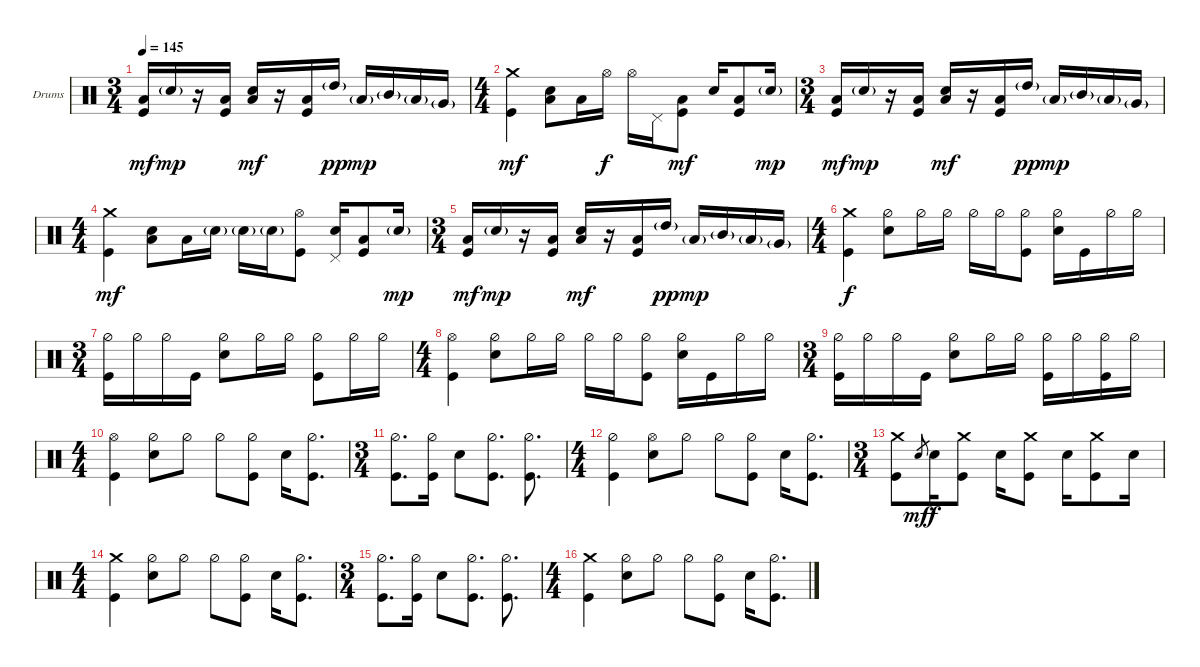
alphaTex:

\bracketExtendMode groupsimilarinstruments
\firstSystemTrackNameOrientation horizontal
\otherSystemsTrackNameOrientation horizontal
\track ("Drumkit" "Drums") {instrument percussion}
\staff {score}
\articulation defaults
\ts (3 4)
\beaming (8 2 2 2)
\tempo 145
\clef neutral
\ks c
("Low Tom (hit)" "Kick (hit)").16{dy mf} "Snare (hit) 2"{g}.16{dy mp} r.16 ("Low Tom (hit)" "Kick (hit)").16 ("Low Tom (hit)" "Snare (hit) 2").16{dy mf} r.16 ("Low Tom (hit)" "Kick (hit)").16 "High Tom (hit)"{g}.16{dy pp} "Low Tom (hit)"{g}.16{dy mp} "Mid Tom (hit)"{g}.16 "Low Tom (hit)"{g}.16 "Very Low Tom (hit)"{g}.16 |
\ts (4 4)
\beaming (8 2 2 2 2)
("Crash medium (hit)" "Kick (hit)").4{dy mf} ("Low Tom (hit)" "Snare (hit) 2").8 "Low Tom (hit)".16 "Hi-Hat (open)".16{dy f} "Hi-Hat (open)".16 "Pedal Hi-Hat (hit)".16 ("Low Tom (hit)" "Kick (hit)").8{dy mf} "Snare (hit) 2".16 ("Low Tom (hit)" "Kick (hit)").8 "Snare (hit) 2"{g}.16{dy mp} |
\ts (3 4)
\beaming (8 2 2 2)
("Low Tom (hit)" "Kick (hit)").16{dy mf} "Snare (hit) 2"{g}.16{dy mp} r.16 ("Low Tom (hit)" "Kick (hit)").16 ("Low Tom (hit)" "Snare (hit) 2").16{dy mf} r.16 ("Low Tom (hit)" "Kick (hit)").16 "High Tom (hit)"{g}.16{dy pp} "Low Tom (hit)"{g}.16{dy mp} "Mid Tom (hit)"{g}.16 "Low Tom (hit)"{g}.16 "Very Low Tom (hit)"{g}.16 |
\ts (4 4)
\beaming (8 2 2 2 2)
("Crash medium (hit)" "Kick (hit)").4{dy mf} ("Low Tom (hit)" "Snare (hit) 2").8 "Low Tom (hit)".16 "Snare (hit) 2"{g}.16 "Snare (hit) 2"{g}.16 "Snare (hit) 2"{g}.16 ("Hi-Hat (open)" "Kick (hit)").8 ("Snare (hit) 2" "Pedal Hi-Hat (hit)").16 ("Low Tom (hit)" "Kick (hit)").8 "Snare (hit) 2"{g}.16{dy mp} |
\ts (3 4)
\beaming (8 2 2 2)
("Low Tom (hit)" "Kick (hit)").16{dy mf} "Snare (hit) 2"{g}.16{dy mp} r.16 ("Low Tom (hit)" "Kick (hit)").16 ("Low Tom (hit)" "Snare (hit) 2").16{dy mf} r.16 ("Low Tom (hit)" "Kick (hit)").16 "High Tom (hit)"{g}.16{dy pp} "Low Tom (hit)"{g}.16{dy mp} "Mid Tom (hit)"{g}.16 "Low Tom (hit)"{g}.16 "Very Low Tom (hit)"{g}.16 |
\ts (4 4)
\beaming (8 2 2 2 2)
("Crash medium (hit)" "Kick (hit)").4{dy f} ("Hi-Hat (half)" "Snare (hit) 2").8 "Hi-Hat (half)".16 "Hi-Hat (half)".16 "Hi-Hat (half)".16 "Hi-Hat (half)".16 ("Hi-Hat (half)" "Kick (hit)").8 ("Hi-Hat (half)" "Snare (hit) 2").16 "Kick (hit)".16 "Hi-Hat (half)".16 "Hi-Hat (half)".16 |
\ts (3 4)
\beaming (8 2 2 2)
("Hi-Hat (half)" "Kick (hit)").16 "Hi-Hat (half)".16 "Hi-Hat (half)".16 "Kick (hit)".16 ("Hi-Hat (half)" "Snare (hit) 2").8 "Hi-Hat (half)".16 "Hi-Hat (half)".16 ("Hi-Hat (half)" "Kick (hit)").8 "Hi-Hat (half)".16 "Hi-Hat (half)".16 |
\ts (4 4)
\beaming (8 2 2 2 2)
("Hi-Hat (open)" "Kick (hit)").4 ("Hi-Hat (half)" "Snare (hit) 2").8 "Hi-Hat (half)".16 "Hi-Hat (half)".16 "Hi-Hat (half)".16 "Hi-Hat (half)".16 ("Hi-Hat (half)" "Kick (hit)").8 ("Hi-Hat (half)" "Snare (hit) 2").16 "Kick (hit)".16 "Hi-Hat (half)".16 "Hi-Hat (half)".16 |
\ts (3 4)
\beaming (8 2 2 2)
("Hi-Hat (half)" "Kick (hit)").16 "Hi-Hat (half)".16 "Hi-Hat (half)".16 "Kick (hit)".16 ("Hi-Hat (half)" "Snare (hit) 2").8 "Hi-Hat (half)".16 "Hi-Hat (half)".16 ("Hi-Hat (half)" "Kick (hit)").16 "Hi-Hat (half)".16 ("Hi-Hat (half)" "Kick (hit)").16 "Hi-Hat (half)".16 |
\ts (4 4)
\beaming (8 2 2 2 2)
("Hi-Hat (open)" "Kick (hit)").4 ("Hi-Hat (half)" "Snare (hit) 2").8 "Hi-Hat (half)".8 "Hi-Hat (half)".8 ("Hi-Hat (half)" "Kick (hit)").8 "Snare (hit) 2".16 ("Hi-Hat (half)" "Kick (hit)").8{d} |
\ts (3 4)
\beaming (8 2 2 2)
("Hi-Hat (half)" "Kick (hit)").8{d} ("Hi-Hat (half)" "Kick (hit)").16 "Snare (hit) 2".8 ("Hi-Hat (half)" "Kick (hit)").8{d} ("Hi-Hat (half)" "Kick (hit)").8{d} |
\ts (4 4)
\beaming (8 2 2 2 2)
("Hi-Hat (half)" "Kick (hit)").4 ("Hi-Hat (open)" "Snare (hit) 2").8 "Hi-Hat (half)".8 "Hi-Hat (half)".8 ("Hi-Hat (half)" "Kick (hit)").8 "Snare (hit) 2".16 ("Hi-Hat (half)" "Kick (hit)").8{d} |
\ts (3 4)
\beaming (8 2 2 2)
("Crash medium (hit)" "Kick (hit)").8 "Snare (hit) 2".8{gr dy mf} "Snare (hit) 2".16{dy f} ("Crash medium (hit)" "Kick (hit)").8 "Snare (hit) 2".16 ("Crash medium (hit)" "Kick (hit)").8 "Snare (hit) 2".16 ("Crash medium (hit)" "Kick (hit)").8 "Snare (hit) 2".16 |
\ts (4 4)
\beaming (8 2 2 2 2)
("Crash medium (hit)" "Kick (hit)").4 ("Hi-Hat (half)" "Snare (hit) 2").8 "Hi-Hat (half)".8 "Hi-Hat (half)".8 ("Hi-Hat (half)" "Kick (hit)").8 "Snare (hit) 2".16 ("Hi-Hat (half)" "Kick (hit)").8{d} |
\ts (3 4)
\beaming (8 2 2 2)
("Hi-Hat (half)" "Kick (hit)").8{d} ("Hi-Hat (half)" "Kick (hit)").16 "Snare (hit) 2".8 ("Hi-Hat (half)" "Kick (hit)").8{d} ("Hi-Hat (half)" "Kick (hit)").8{d} |
\ts (4 4)
\beaming (8 2 2 2 2)
("Crash medium (hit)" "Kick (hit)").4 ("Hi-Hat (half)" "Snare (hit) 2").8 "Hi-Hat (half)".8 "Hi-Hat (half)".8 ("Hi-Hat (half)" "Kick (hit)").8 "Snare (hit) 2".16 ("Hi-Hat (half)" "Kick (hit)").8{d}
